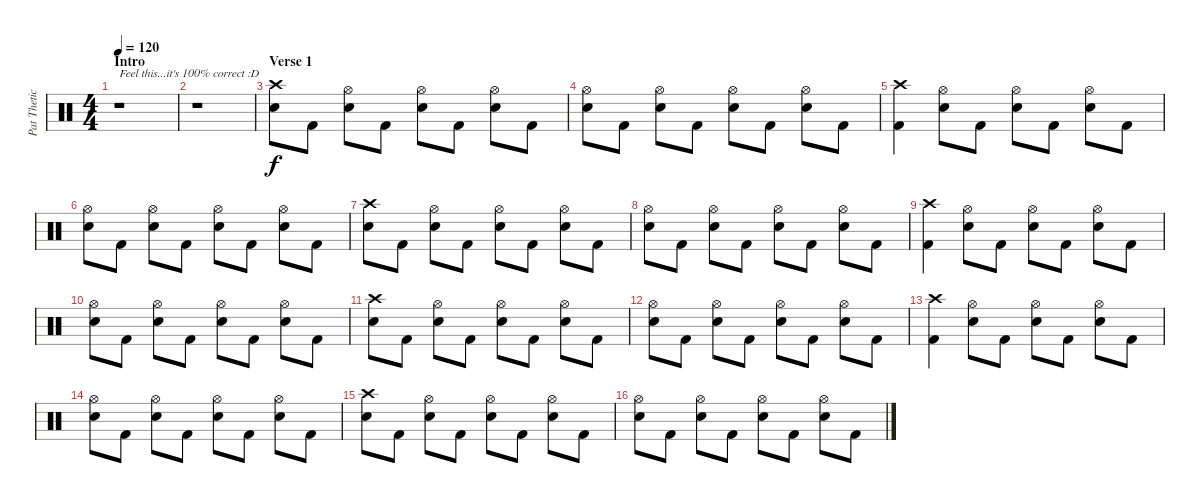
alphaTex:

\track ("Pat Thetic (Drums)" "Pat Thetic") {instrument percussion}
\staff {score}
\articulation defaults
\ts (4 4)
\section ("" "Intro")
\tempo 120
\tempo 215
\tempo 120
\clef neutral
\ks c
r.1{txt "Feel this...it's 100% correct :D" dy f} |
r.1 |
\section ("" "Verse 1")
("Crash high (hit)" "Electric Snare (hit)").8 "Kick (hit) 2".8 ("Hi-Hat (open)" "Electric Snare (hit)").8 "Kick (hit) 2".8 ("Hi-Hat (open)" "Electric Snare (hit)").8 "Kick (hit) 2".8 ("Hi-Hat (open)" "Electric Snare (hit)").8 "Kick (hit) 2".8 |
("Hi-Hat (open)" "Electric Snare (hit)").8 "Kick (hit) 2".8 ("Hi-Hat (open)" "Electric Snare (hit)").8 "Kick (hit) 2".8 ("Hi-Hat (open)" "Electric Snare (hit)").8 "Kick (hit) 2".8 ("Hi-Hat (open)" "Electric Snare (hit)").8 "Kick (hit) 2".8 |
("Crash high (hit)" "Kick (hit) 2").4 ("Hi-Hat (open)" "Electric Snare (hit)").8 "Kick (hit) 2".8 ("Hi-Hat (open)" "Electric Snare (hit)").8 "Kick (hit) 2".8 ("Hi-Hat (open)" "Electric Snare (hit)").8 "Kick (hit) 2".8 |
("Hi-Hat (open)" "Electric Snare (hit)").8 "Kick (hit) 2".8 ("Hi-Hat (open)" "Electric Snare (hit)").8 "Kick (hit) 2".8 ("Hi-Hat (open)" "Electric Snare (hit)").8 "Kick (hit) 2".8 ("Hi-Hat (open)" "Electric Snare (hit)").8 "Kick (hit) 2".8 |
("Crash high (hit)" "Electric Snare (hit)").8 "Kick (hit) 2".8 ("Hi-Hat (open)" "Electric Snare (hit)").8 "Kick (hit) 2".8 ("Hi-Hat (open)" "Electric Snare (hit)").8 "Kick (hit) 2".8 ("Hi-Hat (open)" "Electric Snare (hit)").8 "Kick (hit) 2".8 |
("Hi-Hat (open)" "Electric Snare (hit)").8 "Kick (hit) 2".8 ("Hi-Hat (open)" "Electric Snare (hit)").8 "Kick (hit) 2".8 ("Hi-Hat (open)" "Electric Snare (hit)").8 "Kick (hit) 2".8 ("Hi-Hat (open)" "Electric Snare (hit)").8 "Kick (hit) 2".8 |
("Crash high (hit)" "Kick (hit) 2").4 ("Hi-Hat (open)" "Electric Snare (hit)").8 "Kick (hit) 2".8 ("Hi-Hat (open)" "Electric Snare (hit)").8 "Kick (hit) 2".8 ("Hi-Hat (open)" "Electric Snare (hit)").8 "Kick (hit) 2".8 |
("Hi-Hat (open)" "Electric Snare (hit)").8 "Kick (hit) 2".8 ("Hi-Hat (open)" "Electric Snare (hit)").8 "Kick (hit) 2".8 ("Hi-Hat (open)" "Electric Snare (hit)").8 "Kick (hit) 2".8 ("Hi-Hat (open)" "Electric Snare (hit)").8 "Kick (hit) 2".8 |
("Crash high (hit)" "Electric Snare (hit)").8 "Kick (hit) 2".8 ("Hi-Hat (open)" "Electric Snare (hit)").8 "Kick (hit) 2".8 ("Hi-Hat (open)" "Electric Snare (hit)").8 "Kick (hit) 2".8 ("Hi-Hat (open)" "Electric Snare (hit)").8 "Kick (hit) 2".8 |
("Hi-Hat (open)" "Electric Snare (hit)").8 "Kick (hit) 2".8 ("Hi-Hat (open)" "Electric Snare (hit)").8 "Kick (hit) 2".8 ("Hi-Hat (open)" "Electric Snare (hit)").8 "Kick (hit) 2".8 ("Hi-Hat (open)" "Electric Snare (hit)").8 "Kick (hit) 2".8 |
("Crash high (hit)" "Kick (hit) 2").4 ("Hi-Hat (open)" "Electric Snare (hit)").8 "Kick (hit) 2".8 ("Hi-Hat (open)" "Electric Snare (hit)").8 "Kick (hit) 2".8 ("Hi-Hat (open)" "Electric Snare (hit)").8 "Kick (hit) 2".8 |
("Hi-Hat (open)" "Electric Snare (hit)").8 "Kick (hit) 2".8 ("Hi-Hat (open)" "Electric Snare (hit)").8 "Kick (hit) 2".8 ("Hi-Hat (open)" "Electric Snare (hit)").8 "Kick (hit) 2".8 ("Hi-Hat (open)" "Electric Snare (hit)").8 "Kick (hit) 2".8 |
("Crash high (hit)" "Electric Snare (hit)").8 "Kick (hit) 2".8 ("Hi-Hat (open)" "Electric Snare (hit)").8 "Kick (hit) 2".8 ("Hi-Hat (open)" "Electric Snare (hit)").8 "Kick (hit) 2".8 ("Hi-Hat (open)" "Electric Snare (hit)").8 "Kick (hit) 2".8 |
("Hi-Hat (open)" "Electric Snare (hit)").8 "Kick (hit) 2".8 ("Hi-Hat (open)" "Electric Snare (hit)").8 "Kick (hit) 2".8 ("Hi-Hat (open)" "Electric Snare (hit)").8 "Kick (hit) 2".8 ("Hi-Hat (open)" "Electric Snare (hit)").8 "Kick (hit) 2".8
